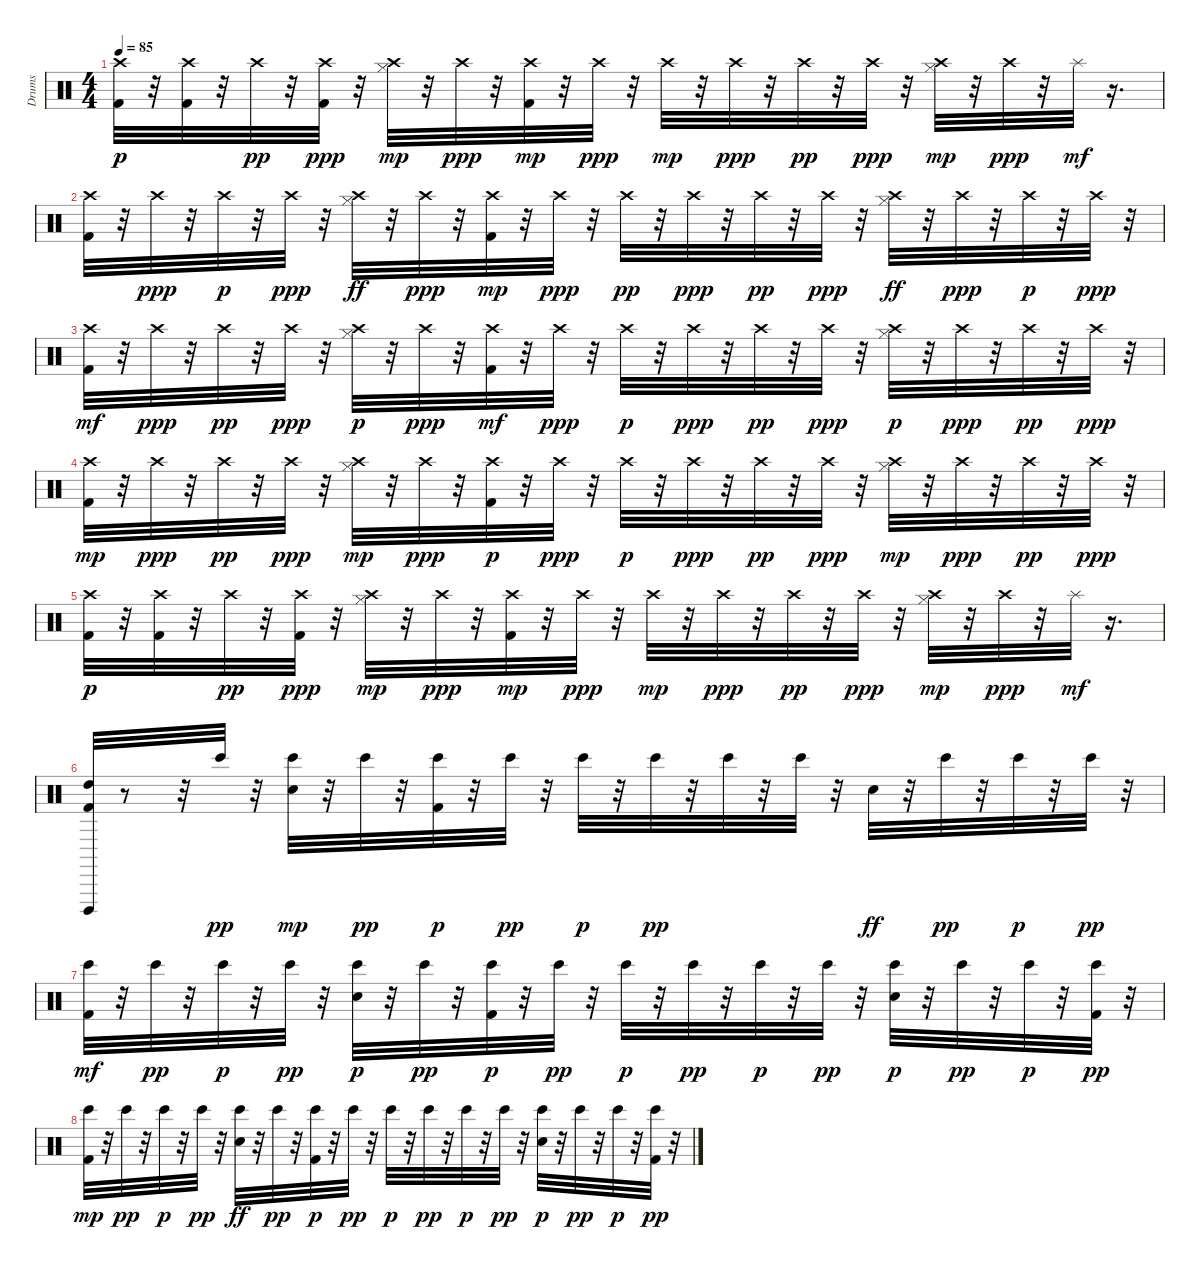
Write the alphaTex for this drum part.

\track ("Drums" "Drums") {instrument percussion}
\staff {score}
\articulation defaults
\ts (4 4)
\tempo 85
\clef neutral
\ks c
("Crash high (hit)" "Kick (hit) 2").32{dy p} r.32 ("Kick (hit) 2" "Crash high (hit)").32 r.32 "Crash high (hit)".32{dy pp} r.32 ("Kick (hit) 2" "Crash high (hit)").32{dy ppp} r.32 ("Hi-Hat (closed)" "Crash high (hit)").32{dy mp} r.32 "Crash high (hit)".32{dy ppp} r.32 ("Crash high (hit)" "Kick (hit) 2").32{dy mp} r.32 "Crash high (hit)".32{dy ppp} r.32 "Crash high (hit)".32{dy mp} r.32 "Crash high (hit)".32{dy ppp} r.32 "Crash high (hit)".32{dy pp} r.32 "Crash high (hit)".32{dy ppp} r.32 ("Hi-Hat (closed)" "Crash high (hit)").32{dy mp} r.32 "Crash high (hit)".32{dy ppp} r.32 "Splash (hit)".32{dy mf} r.16{d} |
("Crash high (hit)" "Kick (hit) 2").32 r.32 "Crash high (hit)".32{dy ppp} r.32 "Crash high (hit)".32{dy p} r.32 "Crash high (hit)".32{dy ppp} r.32 ("Crash high (hit)" "Hi-Hat (closed)").32{dy ff} r.32 "Crash high (hit)".32{dy ppp} r.32 ("Crash high (hit)" "Kick (hit) 2").32{dy mp} r.32 "Crash high (hit)".32{dy ppp} r.32 "Crash high (hit)".32{dy pp} r.32 "Crash high (hit)".32{dy ppp} r.32 "Crash high (hit)".32{dy pp} r.32 "Crash high (hit)".32{dy ppp} r.32 ("Crash high (hit)" "Hi-Hat (closed)").32{dy ff} r.32 "Crash high (hit)".32{dy ppp} r.32 "Crash high (hit)".32{dy p} r.32 "Crash high (hit)".32{dy ppp} r.32 |
("Crash high (hit)" "Kick (hit) 2").32{dy mf} r.32 "Crash high (hit)".32{dy ppp} r.32 "Crash high (hit)".32{dy pp} r.32 "Crash high (hit)".32{dy ppp} r.32 ("Hi-Hat (closed)" "Crash high (hit)").32{dy p} r.32 "Crash high (hit)".32{dy ppp} r.32 ("Crash high (hit)" "Kick (hit) 2").32{dy mf} r.32 "Crash high (hit)".32{dy ppp} r.32 "Crash high (hit)".32{dy p} r.32 "Crash high (hit)".32{dy ppp} r.32 "Crash high (hit)".32{dy pp} r.32 "Crash high (hit)".32{dy ppp} r.32 ("Hi-Hat (closed)" "Crash high (hit)").32{dy p} r.32 "Crash high (hit)".32{dy ppp} r.32 "Crash high (hit)".32{dy pp} r.32 "Crash high (hit)".32{dy ppp} r.32 |
("Kick (hit) 2" "Crash high (hit)").32{dy mp} r.32 "Crash high (hit)".32{dy ppp} r.32 "Crash high (hit)".32{dy pp} r.32 "Crash high (hit)".32{dy ppp} r.32 ("Hi-Hat (closed)" "Crash high (hit)").32{dy mp} r.32 "Crash high (hit)".32{dy ppp} r.32 ("Kick (hit) 2" "Crash high (hit)").32{dy p} r.32 "Crash high (hit)".32{dy ppp} r.32 "Crash high (hit)".32{dy p} r.32 "Crash high (hit)".32{dy ppp} r.32 "Crash high (hit)".32{dy pp} r.32 "Crash high (hit)".32{dy ppp} r.32 ("Hi-Hat (closed)" "Crash high (hit)").32{dy mp} r.32 "Crash high (hit)".32{dy ppp} r.32 "Crash high (hit)".32{dy pp} r.32 "Crash high (hit)".32{dy ppp} r.32 |
("Crash high (hit)" "Kick (hit) 2").32{dy p} r.32 ("Kick (hit) 2" "Crash high (hit)").32 r.32 "Crash high (hit)".32{dy pp} r.32 ("Kick (hit) 2" "Crash high (hit)").32{dy ppp} r.32 ("Hi-Hat (closed)" "Crash high (hit)").32{dy mp} r.32 "Crash high (hit)".32{dy ppp} r.32 ("Crash high (hit)" "Kick (hit) 2").32{dy mp} r.32 "Crash high (hit)".32{dy ppp} r.32 "Crash high (hit)".32{dy mp} r.32 "Crash high (hit)".32{dy ppp} r.32 "Crash high (hit)".32{dy pp} r.32 "Crash high (hit)".32{dy ppp} r.32 ("Hi-Hat (closed)" "Crash high (hit)").32{dy mp} r.32 "Crash high (hit)".32{dy ppp} r.32 "Splash (hit)".32{dy mf} r.16{d} |
("Kick (hit) 2" "High Tom (hit)" "Cuica (open)").32 r.8 r.32 "Bongo High (hit)".32{dy pp} r.32 ("Snare (hit) 2" "Bongo High (hit)").32{dy mp} r.32 "Bongo High (hit)".32{dy pp} r.32 ("Kick (hit) 2" "Bongo High (hit)").32{dy p} r.32 "Bongo High (hit)".32{dy pp} r.32 "Bongo High (hit)".32{dy p} r.32 "Bongo High (hit)".32{dy pp} r.32 "Bongo High (hit)".32 r.32 "Bongo High (hit)".32 r.32 "Snare (hit) 2".32{dy ff} r.32 "Bongo High (hit)".32{dy pp} r.32 "Bongo High (hit)".32{dy p} r.32 "Bongo High (hit)".32{dy pp} r.32 |
("Bongo High (hit)" "Kick (hit) 2").32{dy mf} r.32 "Bongo High (hit)".32{dy pp} r.32 "Bongo High (hit)".32{dy p} r.32 "Bongo High (hit)".32{dy pp} r.32 ("Snare (hit) 2" "Bongo High (hit)").32{dy p} r.32 "Bongo High (hit)".32{dy pp} r.32 ("Kick (hit) 2" "Bongo High (hit)").32{dy p} r.32 "Bongo High (hit)".32{dy pp} r.32 "Bongo High (hit)".32{dy p} r.32 "Bongo High (hit)".32{dy pp} r.32 "Bongo High (hit)".32{dy p} r.32 "Bongo High (hit)".32{dy pp} r.32 ("Snare (hit) 2" "Bongo High (hit)").32{dy p} r.32 "Bongo High (hit)".32{dy pp} r.32 "Bongo High (hit)".32{dy p} r.32 ("Bongo High (hit)" "Kick (hit) 2").32{dy pp} r.32 |
("Kick (hit) 2" "Bongo High (hit)").32{dy mp} r.32 "Bongo High (hit)".32{dy pp} r.32 "Bongo High (hit)".32{dy p} r.32 "Bongo High (hit)".32{dy pp} r.32 ("Bongo High (hit)" "Snare (hit) 2").32{dy ff} r.32 "Bongo High (hit)".32{dy pp} r.32 ("Kick (hit) 2" "Bongo High (hit)").32{dy p} r.32 "Bongo High (hit)".32{dy pp} r.32 "Bongo High (hit)".32{dy p} r.32 "Bongo High (hit)".32{dy pp} r.32 "Bongo High (hit)".32{dy p} r.32 "Bongo High (hit)".32{dy pp} r.32 ("Snare (hit) 2" "Bongo High (hit)").32{dy p} r.32 "Bongo High (hit)".32{dy pp} r.32 "Bongo High (hit)".32{dy p} r.32 ("Kick (hit) 2" "Bongo High (hit)").32{dy pp} r.32
